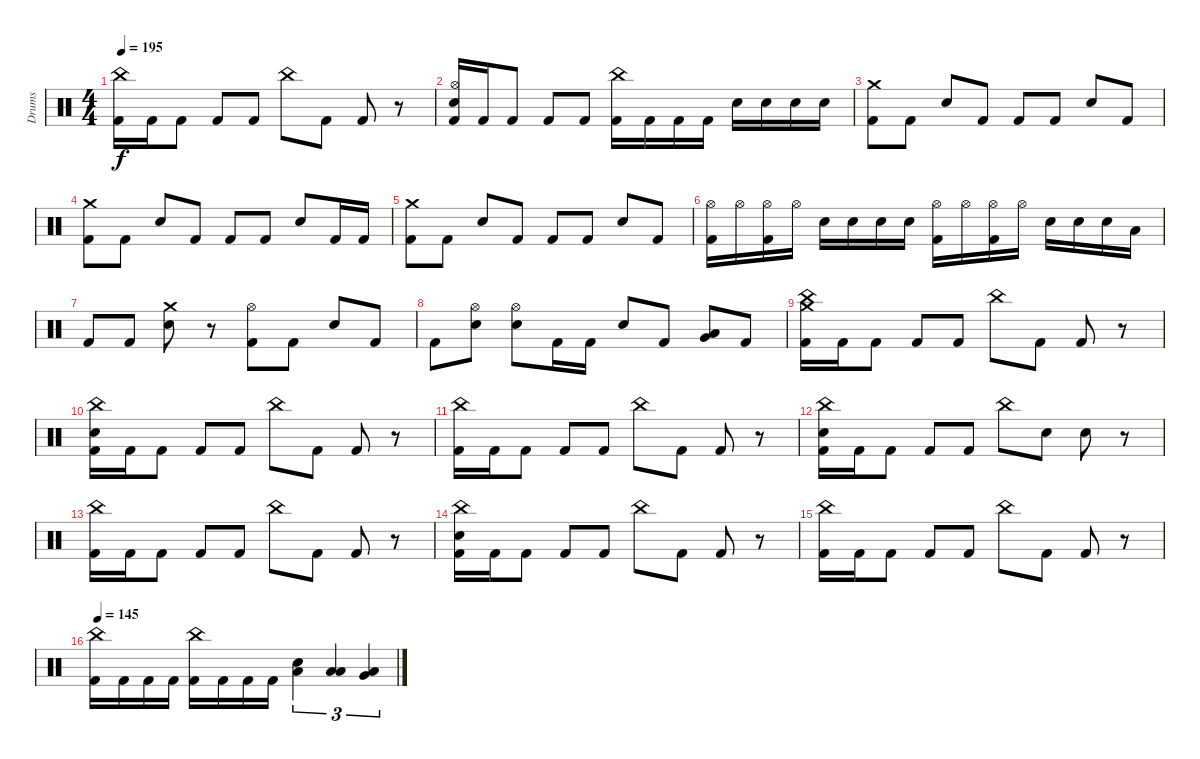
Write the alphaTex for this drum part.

\track ("Drums" "Drums") {instrument percussion}
\staff {score}
\articulation defaults
\ts (4 4)
\tempo 195
\clef neutral
\ks c
("China (hit)" "Kick (hit) 2").16{dy f} "Kick (hit) 2".16 "Kick (hit) 2".8 "Kick (hit) 2".8 "Kick (hit) 2".8 "China (hit)".8 "Kick (hit) 2".8 "Kick (hit) 2".8 r.8 |
("Hi-Hat (open)" "Electric Snare (hit)" "Kick (hit) 2").16 "Kick (hit) 2".16 "Kick (hit) 2".8 "Kick (hit) 2".8 "Kick (hit) 2".8 ("China (hit)" "Kick (hit) 2").16 "Kick (hit) 2".16 "Kick (hit) 2".16 "Kick (hit) 2".16 "Electric Snare (hit)".16 "Electric Snare (hit)".16 "Electric Snare (hit)".16 "Electric Snare (hit)".16 |
("Crash medium (hit)" "Kick (hit) 2").8 "Kick (hit) 2".8 "Electric Snare (hit)".8 "Kick (hit) 2".8 "Kick (hit) 2".8 "Kick (hit) 2".8 "Electric Snare (hit)".8 "Kick (hit) 2".8 |
("Crash medium (hit)" "Kick (hit) 2").8 "Kick (hit) 2".8 "Electric Snare (hit)".8 "Kick (hit) 2".8 "Kick (hit) 2".8 "Kick (hit) 2".8 "Electric Snare (hit)".8 "Kick (hit) 2".16 "Kick (hit) 2".16 |
("Crash medium (hit)" "Kick (hit) 2").8 "Kick (hit) 2".8 "Electric Snare (hit)".8 "Kick (hit) 2".8 "Kick (hit) 2".8 "Kick (hit) 2".8 "Electric Snare (hit)".8 "Kick (hit) 2".8 |
("Hi-Hat (open)" "Kick (hit) 2").16 "Hi-Hat (open)".16 ("Hi-Hat (open)" "Kick (hit) 2").16 "Hi-Hat (open)".16 "Electric Snare (hit)".16 "Electric Snare (hit)".16 "Electric Snare (hit)".16 "Electric Snare (hit)".16 ("Hi-Hat (open)" "Kick (hit) 2").16 "Hi-Hat (open)".16 ("Hi-Hat (open)" "Kick (hit) 2").16 "Hi-Hat (open)".16 "Electric Snare (hit)".16 "Electric Snare (hit)".16 "Electric Snare (hit)".16 "Low Tom (hit)".16 |
"Kick (hit) 2".8 "Kick (hit) 2".8 ("Crash medium (hit)" "Electric Snare (hit)").8 r.8 ("Hi-Hat (open)" "Kick (hit) 2").8 "Kick (hit) 2".8 "Electric Snare (hit)".8 "Kick (hit) 2".8 |
"Kick (hit) 2".8 ("Hi-Hat (open)" "Electric Snare (hit)").8 ("Hi-Hat (open)" "Electric Snare (hit)").8 "Kick (hit) 2".16 "Kick (hit) 2".16 "Electric Snare (hit)".8 "Kick (hit) 2".8 ("Very Low Tom (hit)" "Low Tom (hit)").8 "Kick (hit) 2".8 |
("Crash medium (hit)" "China (hit)" "Kick (hit) 2").16 "Kick (hit) 2".16 "Kick (hit) 2".8 "Kick (hit) 2".8 "Kick (hit) 2".8 "China (hit)".8 "Kick (hit) 2".8 "Kick (hit) 2".8 r.8 |
("China (hit)" "Electric Snare (hit)" "Kick (hit) 2").16 "Kick (hit) 2".16 "Kick (hit) 2".8 "Kick (hit) 2".8 "Kick (hit) 2".8 "China (hit)".8 "Kick (hit) 2".8 "Kick (hit) 2".8 r.8 |
("China (hit)" "Kick (hit) 2").16 "Kick (hit) 2".16 "Kick (hit) 2".8 "Kick (hit) 2".8 "Kick (hit) 2".8 "China (hit)".8 "Kick (hit) 2".8 "Kick (hit) 2".8 r.8 |
("China (hit)" "Electric Snare (hit)" "Kick (hit) 2").16 "Kick (hit) 2".16 "Kick (hit) 2".8 "Kick (hit) 2".8 "Kick (hit) 2".8 "China (hit)".8 "Electric Snare (hit)".8 "Electric Snare (hit)".8 r.8 |
("China (hit)" "Kick (hit) 2").16 "Kick (hit) 2".16 "Kick (hit) 2".8 "Kick (hit) 2".8 "Kick (hit) 2".8 "China (hit)".8 "Kick (hit) 2".8 "Kick (hit) 2".8 r.8 |
("China (hit)" "Electric Snare (hit)" "Kick (hit) 2").16 "Kick (hit) 2".16 "Kick (hit) 2".8 "Kick (hit) 2".8 "Kick (hit) 2".8 "China (hit)".8 "Kick (hit) 2".8 "Kick (hit) 2".8 r.8 |
("China (hit)" "Kick (hit) 2").16 "Kick (hit) 2".16 "Kick (hit) 2".8 "Kick (hit) 2".8 "Kick (hit) 2".8 "China (hit)".8 "Kick (hit) 2".8 "Kick (hit) 2".8 r.8 |
\tempo 145
("China (hit)" "Kick (hit) 2").16 "Kick (hit) 2".16 "Kick (hit) 2".16 "Kick (hit) 2".16 ("China (hit)" "Kick (hit) 2").16 "Kick (hit) 2".16 "Kick (hit) 2".16 "Kick (hit) 2".16 ("Low Tom (hit)" "Electric Snare (hit)").4{tu (3 2)} ("Low Tom (hit)" "Low Tom (hit)").4{tu (3 2)} ("Very Low Tom (hit)" "Low Tom (hit)").4{tu (3 2)}
